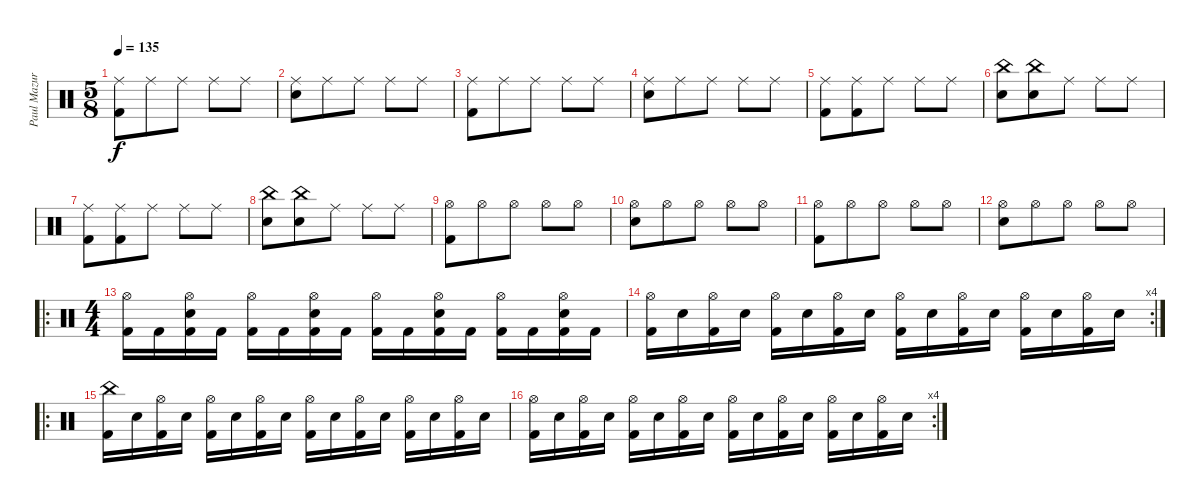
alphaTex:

\track ("Paul Mazurkiewicz" "Paul Mazur") {instrument percussion}
\staff {score}
\articulation defaults
\ts (5 8)
\tempo 135
\clef neutral
\ks c
("Kick (hit) 2" "Ride (middle)").8{dy f} "Ride (middle)".8 "Ride (middle)".8 "Ride (middle)".8 "Ride (middle)".8 |
("Snare (hit) 2" "Ride (middle)").8 "Ride (middle)".8 "Ride (middle)".8 "Ride (middle)".8 "Ride (middle)".8 |
("Kick (hit) 2" "Ride (middle)").8 "Ride (middle)".8 "Ride (middle)".8 "Ride (middle)".8 "Ride (middle)".8 |
("Snare (hit) 2" "Ride (middle)").8 "Ride (middle)".8 "Ride (middle)".8 "Ride (middle)".8 "Ride (middle)".8 |
("Kick (hit) 2" "Ride (middle)").8 ("Kick (hit) 2" "Ride (middle)").8 "Ride (middle)".8 "Ride (middle)".8 "Ride (middle)".8 |
("Snare (hit) 2" "China (hit)").8 ("Snare (hit) 2" "China (hit)").8 "Ride (middle)".8 "Ride (middle)".8 "Ride (middle)".8 |
("Kick (hit) 2" "Ride (middle)").8 ("Kick (hit) 2" "Ride (middle)").8 "Ride (middle)".8 "Ride (middle)".8 "Ride (middle)".8 |
("Snare (hit) 2" "China (hit)").8 ("Snare (hit) 2" "China (hit)").8 "Ride (middle)".8 "Ride (middle)".8 "Ride (middle)".8 |
("Kick (hit) 2" "Hi-Hat (open)").8 "Hi-Hat (open)".8 "Hi-Hat (open)".8 "Hi-Hat (open)".8 "Hi-Hat (open)".8 |
("Snare (hit) 2" "Hi-Hat (open)").8 "Hi-Hat (open)".8 "Hi-Hat (open)".8 "Hi-Hat (open)".8 "Hi-Hat (open)".8 |
("Kick (hit) 2" "Hi-Hat (open)").8 "Hi-Hat (open)".8 "Hi-Hat (open)".8 "Hi-Hat (open)".8 "Hi-Hat (open)".8 |
("Snare (hit) 2" "Hi-Hat (open)").8 "Hi-Hat (open)".8 "Hi-Hat (open)".8 "Hi-Hat (open)".8 "Hi-Hat (open)".8 |
\ro
\ts (4 4)
("Hi-Hat (open)" "Kick (hit) 2").16 "Kick (hit) 2".16 ("Hi-Hat (open)" "Kick (hit) 2" "Snare (hit) 2").16 "Kick (hit) 2".16 ("Hi-Hat (open)" "Kick (hit) 2").16 "Kick (hit) 2".16 ("Hi-Hat (open)" "Kick (hit) 2" "Snare (hit) 2").16 "Kick (hit) 2".16 ("Hi-Hat (open)" "Kick (hit) 2").16 "Kick (hit) 2".16 ("Hi-Hat (open)" "Kick (hit) 2" "Snare (hit) 2").16 "Kick (hit) 2".16 ("Hi-Hat (open)" "Kick (hit) 2").16 "Kick (hit) 2".16 ("Hi-Hat (open)" "Kick (hit) 2" "Snare (hit) 2").16 "Kick (hit) 2".16 |
\rc 4
("Hi-Hat (open)" "Kick (hit) 2").16 "Snare (hit) 2".16 ("Hi-Hat (open)" "Kick (hit) 2").16 "Snare (hit) 2".16 ("Hi-Hat (open)" "Kick (hit) 2").16 "Snare (hit) 2".16 ("Hi-Hat (open)" "Kick (hit) 2").16 "Snare (hit) 2".16 ("Hi-Hat (open)" "Kick (hit) 2").16 "Snare (hit) 2".16 ("Hi-Hat (open)" "Kick (hit) 2").16 "Snare (hit) 2".16 ("Hi-Hat (open)" "Kick (hit) 2").16 "Snare (hit) 2".16 ("Hi-Hat (open)" "Kick (hit) 2").16 "Snare (hit) 2".16 |
\ro
("China (hit)" "Kick (hit) 2").16 "Snare (hit) 2".16 ("Hi-Hat (open)" "Kick (hit) 2").16 "Snare (hit) 2".16 ("Hi-Hat (open)" "Kick (hit) 2").16 "Snare (hit) 2".16 ("Hi-Hat (open)" "Kick (hit) 2").16 "Snare (hit) 2".16 ("Hi-Hat (open)" "Kick (hit) 2").16 "Snare (hit) 2".16 ("Hi-Hat (open)" "Kick (hit) 2").16 "Snare (hit) 2".16 ("Hi-Hat (open)" "Kick (hit) 2").16 "Snare (hit) 2".16 ("Hi-Hat (open)" "Kick (hit) 2").16 "Snare (hit) 2".16 |
\rc 4
("Hi-Hat (open)" "Kick (hit) 2").16 "Snare (hit) 2".16 ("Hi-Hat (open)" "Kick (hit) 2").16 "Snare (hit) 2".16 ("Hi-Hat (open)" "Kick (hit) 2").16 "Snare (hit) 2".16 ("Hi-Hat (open)" "Kick (hit) 2").16 "Snare (hit) 2".16 ("Hi-Hat (open)" "Kick (hit) 2").16 "Snare (hit) 2".16 ("Hi-Hat (open)" "Kick (hit) 2").16 "Snare (hit) 2".16 ("Hi-Hat (open)" "Kick (hit) 2").16 "Snare (hit) 2".16 ("Hi-Hat (open)" "Kick (hit) 2").16 "Snare (hit) 2".16
